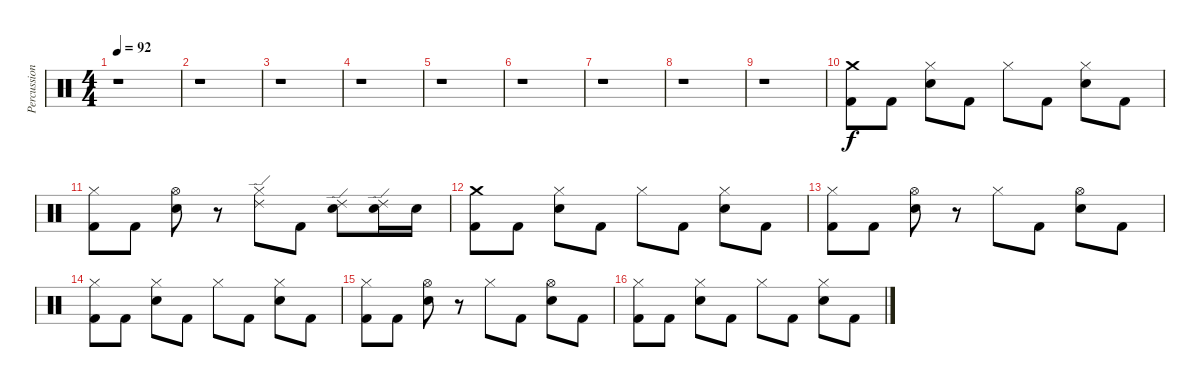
\track ("Percussions" "Percussion") {instrument percussion}
\staff {score}
\articulation defaults
\ts (4 4)
\tempo 92
\clef neutral
\ks c
r.1{dy f} |
r.1 |
r.1 |
r.1 |
r.1 |
r.1 |
r.1 |
r.1 |
r.1 |
("Crash medium (hit)" "Kick (hit) 2").8 "Kick (hit) 2".8 ("Hi-Hat (closed)" "Electric Snare (hit)").8 "Kick (hit) 2".8 "Hi-Hat (closed)".8 "Kick (hit) 2".8 ("Hi-Hat (closed)" "Electric Snare (hit)").8 "Kick (hit) 2".8 |
("Hi-Hat (closed)" "Kick (hit) 2").8 "Kick (hit) 2".8 ("Hi-Hat (open)" "Electric Snare (hit)").8 r.8 ("Ride (edge) 2" "Hi-Hat (closed)").8 "Kick (hit) 2".8 ("Ride (edge) 2" "Electric Snare (hit)").8 ("Ride (edge) 2" "Electric Snare (hit)").16 "Electric Snare (hit)".16 |
("Crash medium (hit)" "Kick (hit) 2").8 "Kick (hit) 2".8 ("Hi-Hat (closed)" "Electric Snare (hit)").8 "Kick (hit) 2".8 "Hi-Hat (closed)".8 "Kick (hit) 2".8 ("Hi-Hat (closed)" "Electric Snare (hit)").8 "Kick (hit) 2".8 |
("Hi-Hat (closed)" "Kick (hit) 2").8 "Kick (hit) 2".8 ("Hi-Hat (open)" "Electric Snare (hit)").8 r.8 "Hi-Hat (closed)".8 "Kick (hit) 2".8 ("Hi-Hat (open)" "Electric Snare (hit)").8 "Kick (hit) 2".8 |
("Hi-Hat (closed)" "Kick (hit) 2").8 "Kick (hit) 2".8 ("Hi-Hat (closed)" "Electric Snare (hit)").8 "Kick (hit) 2".8 "Hi-Hat (closed)".8 "Kick (hit) 2".8 ("Hi-Hat (closed)" "Electric Snare (hit)").8 "Kick (hit) 2".8 |
("Hi-Hat (closed)" "Kick (hit) 2").8 "Kick (hit) 2".8 ("Hi-Hat (open)" "Electric Snare (hit)").8 r.8 "Hi-Hat (closed)".8 "Kick (hit) 2".8 ("Hi-Hat (open)" "Electric Snare (hit)").8 "Kick (hit) 2".8 |
("Hi-Hat (closed)" "Kick (hit) 2").8 "Kick (hit) 2".8 ("Hi-Hat (closed)" "Electric Snare (hit)").8 "Kick (hit) 2".8 "Hi-Hat (closed)".8 "Kick (hit) 2".8 ("Hi-Hat (closed)" "Electric Snare (hit)").8 "Kick (hit) 2".8
